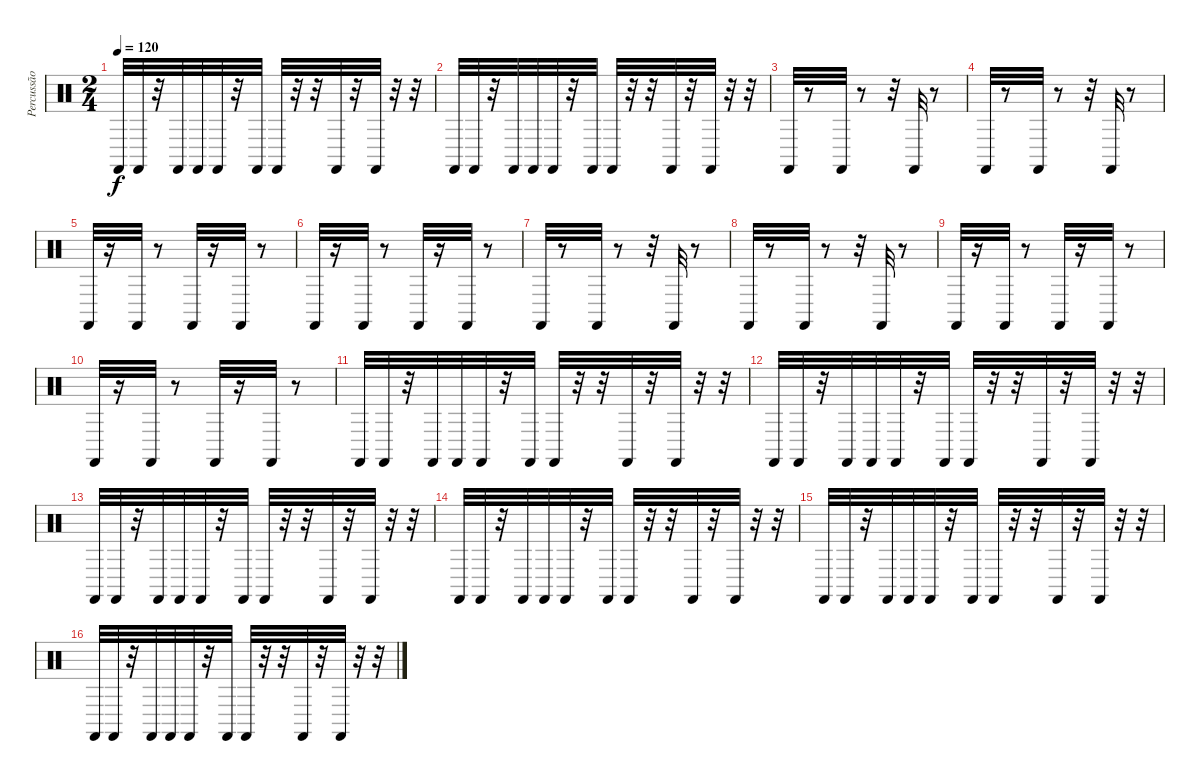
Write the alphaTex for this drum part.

\track ("Percussão" "Percussão") {instrument percussion}
\staff {score}
\articulation defaults
\ts (2 4)
\tempo 120
\clef neutral
\ks c "Castanets (hit)".32{dy f} "Castanets (hit)".32
r.32 "Castanets (hit)".32 "Castanets (hit)".32 "Castanets (hit)".32 r.32 "Castanets (hit)".32 "Castanets (hit)".32 r.32 r.32 "Castanets (hit)".32 r.32 "Castanets (hit)".32 r.32 r.32 |
"Castanets (hit)".32 "Castanets (hit)".32 r.32 "Castanets (hit)".32 "Castanets (hit)".32 "Castanets (hit)".32 r.32 "Castanets (hit)".32 "Castanets (hit)".32 r.32 r.32 "Castanets (hit)".32 r.32 "Castanets (hit)".32 r.32 r.32 |
"Castanets (hit)".32 r.8 "Castanets (hit)".32 r.8 r.32 "Castanets (hit)".32 r.8 |
"Castanets (hit)".32 r.8 "Castanets (hit)".32 r.8 r.32 "Castanets (hit)".32 r.8 |
"Castanets (hit)".32 r.16 "Castanets (hit)".32 r.8 "Castanets (hit)".32 r.16 "Castanets (hit)".32 r.8 |
"Castanets (hit)".32 r.16 "Castanets (hit)".32 r.8 "Castanets (hit)".32 r.16 "Castanets (hit)".32 r.8 |
"Castanets (hit)".32 r.8 "Castanets (hit)".32 r.8 r.32 "Castanets (hit)".32 r.8 |
"Castanets (hit)".32 r.8 "Castanets (hit)".32 r.8 r.32 "Castanets (hit)".32 r.8 |
"Castanets (hit)".32 r.16 "Castanets (hit)".32 r.8 "Castanets (hit)".32 r.16 "Castanets (hit)".32 r.8 |
"Castanets (hit)".32 r.16 "Castanets (hit)".32 r.8 "Castanets (hit)".32 r.16 "Castanets (hit)".32 r.8 |
"Castanets (hit)".32 "Castanets (hit)".32 r.32 "Castanets (hit)".32 "Castanets (hit)".32 "Castanets (hit)".32 r.32 "Castanets (hit)".32 "Castanets (hit)".32 r.32 r.32 "Castanets (hit)".32 r.32 "Castanets (hit)".32 r.32 r.32 |
"Castanets (hit)".32 "Castanets (hit)".32 r.32 "Castanets (hit)".32 "Castanets (hit)".32 "Castanets (hit)".32 r.32 "Castanets (hit)".32 "Castanets (hit)".32 r.32 r.32 "Castanets (hit)".32 r.32 "Castanets (hit)".32 r.32 r.32 |
"Castanets (hit)".32 "Castanets (hit)".32 r.32 "Castanets (hit)".32 "Castanets (hit)".32 "Castanets (hit)".32 r.32 "Castanets (hit)".32 "Castanets (hit)".32 r.32 r.32 "Castanets (hit)".32 r.32 "Castanets (hit)".32 r.32 r.32 |
"Castanets (hit)".32 "Castanets (hit)".32 r.32 "Castanets (hit)".32 "Castanets (hit)".32 "Castanets (hit)".32 r.32 "Castanets (hit)".32 "Castanets (hit)".32 r.32 r.32 "Castanets (hit)".32 r.32 "Castanets (hit)".32 r.32 r.32 |
"Castanets (hit)".32 "Castanets (hit)".32 r.32 "Castanets (hit)".32 "Castanets (hit)".32 "Castanets (hit)".32 r.32 "Castanets (hit)".32 "Castanets (hit)".32 r.32 r.32 "Castanets (hit)".32 r.32 "Castanets (hit)".32 r.32 r.32 |
"Castanets (hit)".32 "Castanets (hit)".32 r.32 "Castanets (hit)".32 "Castanets (hit)".32 "Castanets (hit)".32 r.32 "Castanets (hit)".32 "Castanets (hit)".32 r.32 r.32 "Castanets (hit)".32 r.32 "Castanets (hit)".32 r.32 r.32
